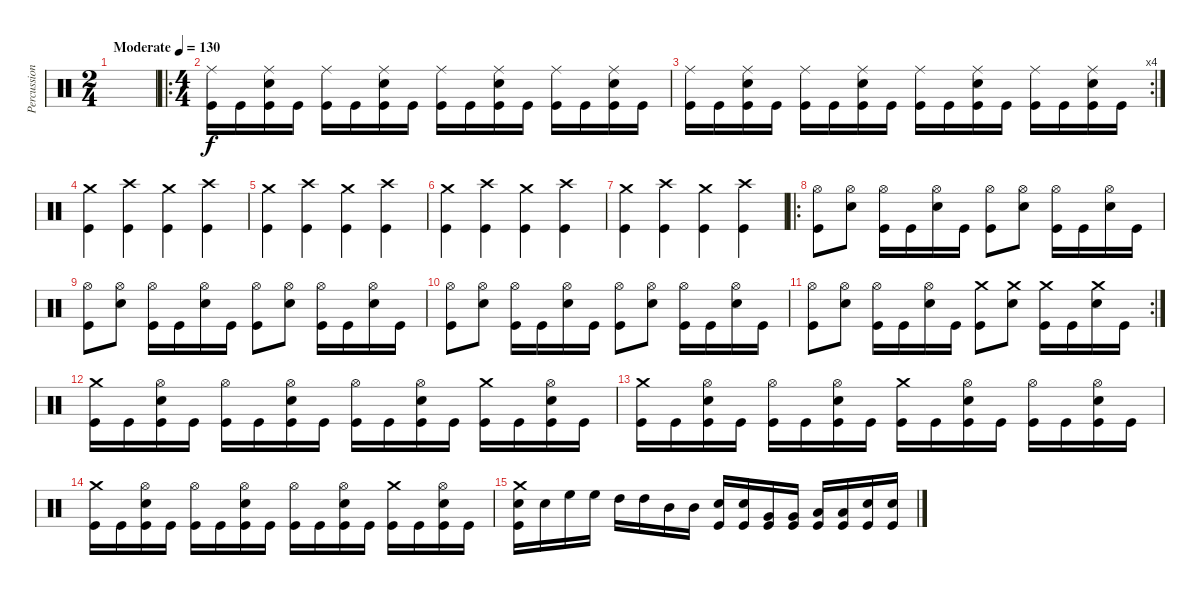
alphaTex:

\track ("Percussion" "Percussion") {instrument percussion}
\staff {score}
\articulation defaults
\ts (2 4)
\tempo (130 "Moderate")
\clef neutral
\ks c
|
\ro
\ts (4 4)
("Ride (middle)" "Kick (hit)").16 "Kick (hit)".16 ("Ride (middle)" "Snare (hit) 2" "Kick (hit)").16 "Kick (hit)".16 ("Ride (middle)" "Kick (hit)").16 "Kick (hit)".16 ("Ride (middle)" "Snare (hit) 2" "Kick (hit)").16 "Kick (hit)".16 ("Ride (middle)" "Kick (hit)").16 "Kick (hit)".16 ("Ride (middle)" "Snare (hit) 2" "Kick (hit)").16 "Kick (hit)".16 ("Ride (middle)" "Kick (hit)").16 "Kick (hit)".16 ("Ride (middle)" "Snare (hit) 2" "Kick (hit)").16 "Kick (hit)".16 |
\rc 4
("Ride (middle)" "Kick (hit)").16 "Kick (hit)".16 ("Ride (middle)" "Snare (hit) 2" "Kick (hit)").16 "Kick (hit)".16 ("Ride (middle)" "Kick (hit)").16 "Kick (hit)".16 ("Ride (middle)" "Snare (hit) 2" "Kick (hit)").16 "Kick (hit)".16 ("Ride (middle)" "Kick (hit)").16 "Kick (hit)".16 ("Ride (middle)" "Snare (hit) 2" "Kick (hit)").16 "Kick (hit)".16 ("Ride (middle)" "Kick (hit)").16 "Kick (hit)".16 ("Ride (middle)" "Snare (hit) 2" "Kick (hit)").16 "Kick (hit)".16 |
("Crash medium (hit)" "Kick (hit)").4 ("Crash high (hit)" "Kick (hit)").4 ("Crash medium (hit)" "Kick (hit)").4 ("Crash high (hit)" "Kick (hit)").4 |
("Crash medium (hit)" "Kick (hit)").4 ("Crash high (hit)" "Kick (hit)").4 ("Crash medium (hit)" "Kick (hit)").4 ("Crash high (hit)" "Kick (hit)").4 |
("Crash medium (hit)" "Kick (hit)").4 ("Crash high (hit)" "Kick (hit)").4 ("Crash medium (hit)" "Kick (hit)").4 ("Crash high (hit)" "Kick (hit)").4 |
("Crash medium (hit)" "Kick (hit)").4 ("Crash high (hit)" "Kick (hit)").4 ("Crash medium (hit)" "Kick (hit)").4 ("Crash high (hit)" "Kick (hit)").4 |
\ro
("Hi-Hat (open)" "Kick (hit)").8 ("Hi-Hat (open)" "Snare (hit) 2").8 ("Hi-Hat (open)" "Kick (hit)").16 "Kick (hit)".16 ("Hi-Hat (open)" "Snare (hit) 2").16 "Kick (hit)".16 ("Hi-Hat (open)" "Kick (hit)").8 ("Hi-Hat (open)" "Snare (hit) 2").8 ("Hi-Hat (open)" "Kick (hit)").16 "Kick (hit)".16 ("Hi-Hat (open)" "Snare (hit) 2").16 "Kick (hit)".16 |
("Hi-Hat (open)" "Kick (hit)").8 ("Hi-Hat (open)" "Snare (hit) 2").8 ("Hi-Hat (open)" "Kick (hit)").16 "Kick (hit)".16 ("Hi-Hat (open)" "Snare (hit) 2").16 "Kick (hit)".16 ("Hi-Hat (open)" "Kick (hit)").8 ("Hi-Hat (open)" "Snare (hit) 2").8 ("Hi-Hat (open)" "Kick (hit)").16 "Kick (hit)".16 ("Hi-Hat (open)" "Snare (hit) 2").16 "Kick (hit)".16 |
("Hi-Hat (open)" "Kick (hit)").8 ("Hi-Hat (open)" "Snare (hit) 2").8 ("Hi-Hat (open)" "Kick (hit)").16 "Kick (hit)".16 ("Hi-Hat (open)" "Snare (hit) 2").16 "Kick (hit)".16 ("Hi-Hat (open)" "Kick (hit)").8 ("Hi-Hat (open)" "Snare (hit) 2").8 ("Hi-Hat (open)" "Kick (hit)").16 "Kick (hit)".16 ("Hi-Hat (open)" "Snare (hit) 2").16 "Kick (hit)".16 |
\rc 2
("Hi-Hat (open)" "Kick (hit)").8 ("Hi-Hat (open)" "Snare (hit) 2").8 ("Hi-Hat (open)" "Kick (hit)").16 "Kick (hit)".16 ("Hi-Hat (open)" "Snare (hit) 2").16 "Kick (hit)".16 ("Crash medium (hit)" "Kick (hit)").8 ("Crash medium (hit)" "Snare (hit) 2").8 ("Crash medium (hit)" "Kick (hit)").16 "Kick (hit)".16 ("Crash medium (hit)" "Snare (hit) 2").16 "Kick (hit)".16 |
("Crash medium (hit)" "Kick (hit)").16 "Kick (hit)".16 ("Hi-Hat (open)" "Snare (hit) 2" "Kick (hit)").16 "Kick (hit)".16 ("Hi-Hat (open)" "Kick (hit)").16 "Kick (hit)".16 ("Hi-Hat (open)" "Snare (hit) 2" "Kick (hit)").16 "Kick (hit)".16 ("Hi-Hat (open)" "Kick (hit)").16 "Kick (hit)".16 ("Hi-Hat (open)" "Snare (hit) 2" "Kick (hit)").16 "Kick (hit)".16 ("Crash medium (hit)" "Kick (hit)").16 "Kick (hit)".16 ("Hi-Hat (open)" "Snare (hit) 2" "Kick (hit)").16 "Kick (hit)".16 |
("Crash medium (hit)" "Kick (hit)").16 "Kick (hit)".16 ("Hi-Hat (open)" "Snare (hit) 2" "Kick (hit)").16 "Kick (hit)".16 ("Hi-Hat (open)" "Kick (hit)").16 "Kick (hit)".16 ("Hi-Hat (open)" "Snare (hit) 2" "Kick (hit)").16 "Kick (hit)".16 ("Crash medium (hit)" "Kick (hit)").16 "Kick (hit)".16 ("Hi-Hat (open)" "Snare (hit) 2" "Kick (hit)").16 "Kick (hit)".16 ("Hi-Hat (open)" "Kick (hit)").16 "Kick (hit)".16 ("Hi-Hat (open)" "Snare (hit) 2" "Kick (hit)").16 "Kick (hit)".16 |
("Crash medium (hit)" "Kick (hit)").16 "Kick (hit)".16 ("Hi-Hat (open)" "Snare (hit) 2" "Kick (hit)").16 "Kick (hit)".16 ("Hi-Hat (open)" "Kick (hit)").16 "Kick (hit)".16 ("Hi-Hat (open)" "Snare (hit) 2" "Kick (hit)").16 "Kick (hit)".16 ("Hi-Hat (open)" "Kick (hit)").16 "Kick (hit)".16 ("Hi-Hat (open)" "Snare (hit) 2" "Kick (hit)").16 "Kick (hit)".16 ("Crash medium (hit)" "Kick (hit)").16 "Kick (hit)".16 ("Hi-Hat (open)" "Snare (hit) 2" "Kick (hit)").16 "Kick (hit)".16 |
("Crash medium (hit)" "Snare (hit) 2" "Kick (hit)").16 "Snare (hit) 2".16 "High Floor Tom (hit)".16 "High Floor Tom (hit)".16 "High Tom (hit)".16 "High Tom (hit)".16 "Mid Tom (hit)".16 "Mid Tom (hit)".16 ("Snare (hit) 2" "Kick (hit)").16 ("Snare (hit) 2" "Kick (hit)").16 ("Very Low Tom (hit)" "Kick (hit)").16 ("Very Low Tom (hit)" "Kick (hit)").16 ("Low Floor Tom (hit)" "Kick (hit)").16 ("Low Floor Tom (hit)" "Kick (hit)").16 ("Snare (hit) 2" "Kick (hit)").16 ("Snare (hit) 2" "Kick (hit)").16
